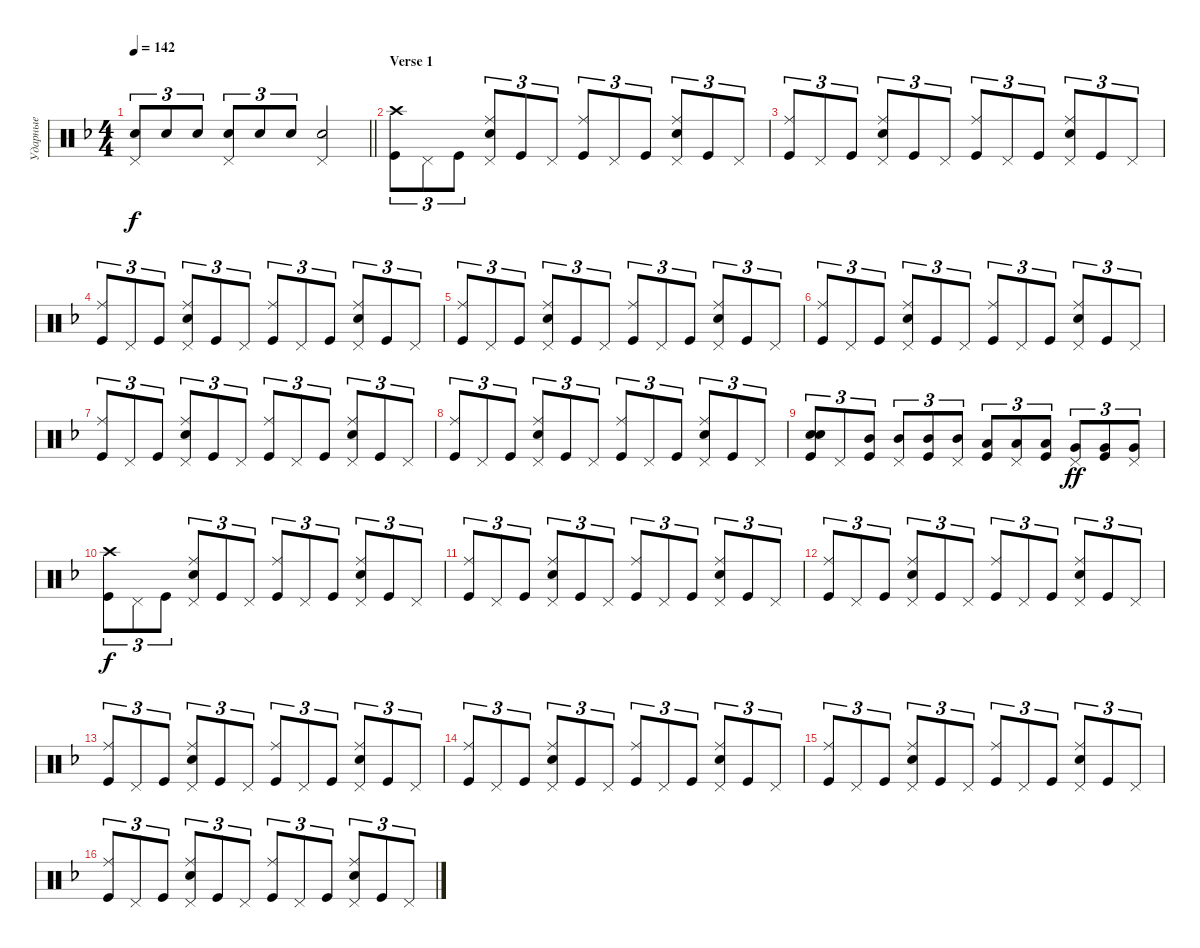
\track ("Ударные" "Ударные") {instrument percussion}
\staff {score}
\articulation defaults
\ts (4 4)
\tempo 142
\clef neutral
\barLineRight lightlight
\ks dminor
("Snare (hit) 2" "Pedal Hi-Hat (hit)").8{tu (3 2) dy f} "Snare (hit) 2".8{tu (3 2)} "Snare (hit) 2".8{tu (3 2)} ("Snare (hit) 2" "Pedal Hi-Hat (hit)").8{tu (3 2)} "Snare (hit) 2".8{tu (3 2)} "Snare (hit) 2".8{tu (3 2)} ("Snare (hit) 2" "Pedal Hi-Hat (hit)").2 |
\section ("" "Verse 1")
("Kick (hit)" "Crash high (hit)").8{tu (3 2)} "Pedal Hi-Hat (hit)".8{tu (3 2)} "Kick (hit)".8{tu (3 2)} ("Snare (hit) 2" "Ride (middle)" "Pedal Hi-Hat (hit)").8{tu (3 2)} "Kick (hit)".8{tu (3 2)} "Pedal Hi-Hat (hit)".8{tu (3 2)} ("Kick (hit)" "Ride (middle)").8{tu (3 2)} "Pedal Hi-Hat (hit)".8{tu (3 2)} "Kick (hit)".8{tu (3 2)} ("Snare (hit) 2" "Ride (middle)" "Pedal Hi-Hat (hit)").8{tu (3 2)} "Kick (hit)".8{tu (3 2)} "Pedal Hi-Hat (hit)".8{tu (3 2)} |
("Kick (hit)" "Ride (middle)").8{tu (3 2)} "Pedal Hi-Hat (hit)".8{tu (3 2)} "Kick (hit)".8{tu (3 2)} ("Snare (hit) 2" "Ride (middle)" "Pedal Hi-Hat (hit)").8{tu (3 2)} "Kick (hit)".8{tu (3 2)} "Pedal Hi-Hat (hit)".8{tu (3 2)} ("Kick (hit)" "Ride (middle)").8{tu (3 2)} "Pedal Hi-Hat (hit)".8{tu (3 2)} "Kick (hit)".8{tu (3 2)} ("Snare (hit) 2" "Ride (middle)" "Pedal Hi-Hat (hit)").8{tu (3 2)} "Kick (hit)".8{tu (3 2)} "Pedal Hi-Hat (hit)".8{tu (3 2)} |
("Kick (hit)" "Ride (middle)").8{tu (3 2)} "Pedal Hi-Hat (hit)".8{tu (3 2)} "Kick (hit)".8{tu (3 2)} ("Snare (hit) 2" "Ride (middle)" "Pedal Hi-Hat (hit)").8{tu (3 2)} "Kick (hit)".8{tu (3 2)} "Pedal Hi-Hat (hit)".8{tu (3 2)} ("Kick (hit)" "Ride (middle)").8{tu (3 2)} "Pedal Hi-Hat (hit)".8{tu (3 2)} "Kick (hit)".8{tu (3 2)} ("Snare (hit) 2" "Ride (middle)" "Pedal Hi-Hat (hit)").8{tu (3 2)} "Kick (hit)".8{tu (3 2)} "Pedal Hi-Hat (hit)".8{tu (3 2)} |
("Kick (hit)" "Ride (middle)").8{tu (3 2)} "Pedal Hi-Hat (hit)".8{tu (3 2)} "Kick (hit)".8{tu (3 2)} ("Snare (hit) 2" "Ride (middle)" "Pedal Hi-Hat (hit)").8{tu (3 2)} "Kick (hit)".8{tu (3 2)} "Pedal Hi-Hat (hit)".8{tu (3 2)} ("Kick (hit)" "Ride (middle)").8{tu (3 2)} "Pedal Hi-Hat (hit)".8{tu (3 2)} "Kick (hit)".8{tu (3 2)} ("Snare (hit) 2" "Ride (middle)" "Pedal Hi-Hat (hit)").8{tu (3 2)} "Kick (hit)".8{tu (3 2)} "Pedal Hi-Hat (hit)".8{tu (3 2)} |
("Kick (hit)" "Ride (middle)").8{tu (3 2)} "Pedal Hi-Hat (hit)".8{tu (3 2)} "Kick (hit)".8{tu (3 2)} ("Snare (hit) 2" "Ride (middle)" "Pedal Hi-Hat (hit)").8{tu (3 2)} "Kick (hit)".8{tu (3 2)} "Pedal Hi-Hat (hit)".8{tu (3 2)} ("Kick (hit)" "Ride (middle)").8{tu (3 2)} "Pedal Hi-Hat (hit)".8{tu (3 2)} "Kick (hit)".8{tu (3 2)} ("Snare (hit) 2" "Ride (middle)" "Pedal Hi-Hat (hit)").8{tu (3 2)} "Kick (hit)".8{tu (3 2)} "Pedal Hi-Hat (hit)".8{tu (3 2)} |
("Kick (hit)" "Ride (middle)").8{tu (3 2)} "Pedal Hi-Hat (hit)".8{tu (3 2)} "Kick (hit)".8{tu (3 2)} ("Snare (hit) 2" "Ride (middle)" "Pedal Hi-Hat (hit)").8{tu (3 2)} "Kick (hit)".8{tu (3 2)} "Pedal Hi-Hat (hit)".8{tu (3 2)} ("Kick (hit)" "Ride (middle)").8{tu (3 2)} "Pedal Hi-Hat (hit)".8{tu (3 2)} "Kick (hit)".8{tu (3 2)} ("Snare (hit) 2" "Ride (middle)" "Pedal Hi-Hat (hit)").8{tu (3 2)} "Kick (hit)".8{tu (3 2)} "Pedal Hi-Hat (hit)".8{tu (3 2)} |
("Kick (hit)" "Ride (middle)").8{tu (3 2)} "Pedal Hi-Hat (hit)".8{tu (3 2)} "Kick (hit)".8{tu (3 2)} ("Snare (hit) 2" "Ride (middle)" "Pedal Hi-Hat (hit)").8{tu (3 2)} "Kick (hit)".8{tu (3 2)} "Pedal Hi-Hat (hit)".8{tu (3 2)} ("Kick (hit)" "Ride (middle)").8{tu (3 2)} "Pedal Hi-Hat (hit)".8{tu (3 2)} "Kick (hit)".8{tu (3 2)} ("Snare (hit) 2" "Ride (middle)" "Pedal Hi-Hat (hit)").8{tu (3 2)} "Kick (hit)".8{tu (3 2)} "Pedal Hi-Hat (hit)".8{tu (3 2)} |
("Snare (hit) 2" "Snare (hit) 2" "Kick (hit)").8{tu (3 2) bd 240} "Pedal Hi-Hat (hit)".8{tu (3 2)} ("Mid Tom (hit)" "Kick (hit)").8{tu (3 2)} ("Pedal Hi-Hat (hit)" "Mid Tom (hit)").8{tu (3 2)} ("Mid Tom (hit)" "Kick (hit)").8{tu (3 2)} ("Mid Tom (hit)" "Pedal Hi-Hat (hit)").8{tu (3 2)} ("Low Tom (hit)" "Kick (hit)").8{tu (3 2)} ("Low Tom (hit)" "Pedal Hi-Hat (hit)").8{tu (3 2)} ("Low Tom (hit)" "Kick (hit)").8{tu (3 2)} ("Very Low Tom (hit)" "Pedal Hi-Hat (hit)").8{tu (3 2) dy ff} ("Very Low Tom (hit)" "Kick (hit)").8{tu (3 2)} ("Very Low Tom (hit)" "Pedal Hi-Hat (hit)").8{tu (3 2)} |
("Kick (hit)" "Crash high (hit)").8{tu (3 2) dy f} "Pedal Hi-Hat (hit)".8{tu (3 2)} "Kick (hit)".8{tu (3 2)} ("Snare (hit) 2" "Ride (middle)" "Pedal Hi-Hat (hit)").8{tu (3 2)} "Kick (hit)".8{tu (3 2)} "Pedal Hi-Hat (hit)".8{tu (3 2)} ("Kick (hit)" "Ride (middle)").8{tu (3 2)} "Pedal Hi-Hat (hit)".8{tu (3 2)} "Kick (hit)".8{tu (3 2)} ("Snare (hit) 2" "Ride (middle)" "Pedal Hi-Hat (hit)").8{tu (3 2)} "Kick (hit)".8{tu (3 2)} "Pedal Hi-Hat (hit)".8{tu (3 2)} |
("Kick (hit)" "Ride (middle)").8{tu (3 2)} "Pedal Hi-Hat (hit)".8{tu (3 2)} "Kick (hit)".8{tu (3 2)} ("Snare (hit) 2" "Ride (middle)" "Pedal Hi-Hat (hit)").8{tu (3 2)} "Kick (hit)".8{tu (3 2)} "Pedal Hi-Hat (hit)".8{tu (3 2)} ("Kick (hit)" "Ride (middle)").8{tu (3 2)} "Pedal Hi-Hat (hit)".8{tu (3 2)} "Kick (hit)".8{tu (3 2)} ("Snare (hit) 2" "Ride (middle)" "Pedal Hi-Hat (hit)").8{tu (3 2)} "Kick (hit)".8{tu (3 2)} "Pedal Hi-Hat (hit)".8{tu (3 2)} |
("Kick (hit)" "Ride (middle)").8{tu (3 2)} "Pedal Hi-Hat (hit)".8{tu (3 2)} "Kick (hit)".8{tu (3 2)} ("Snare (hit) 2" "Ride (middle)" "Pedal Hi-Hat (hit)").8{tu (3 2)} "Kick (hit)".8{tu (3 2)} "Pedal Hi-Hat (hit)".8{tu (3 2)} ("Kick (hit)" "Ride (middle)").8{tu (3 2)} "Pedal Hi-Hat (hit)".8{tu (3 2)} "Kick (hit)".8{tu (3 2)} ("Snare (hit) 2" "Ride (middle)" "Pedal Hi-Hat (hit)").8{tu (3 2)} "Kick (hit)".8{tu (3 2)} "Pedal Hi-Hat (hit)".8{tu (3 2)} |
("Kick (hit)" "Ride (middle)").8{tu (3 2)} "Pedal Hi-Hat (hit)".8{tu (3 2)} "Kick (hit)".8{tu (3 2)} ("Snare (hit) 2" "Ride (middle)" "Pedal Hi-Hat (hit)").8{tu (3 2)} "Kick (hit)".8{tu (3 2)} "Pedal Hi-Hat (hit)".8{tu (3 2)} ("Kick (hit)" "Ride (middle)").8{tu (3 2)} "Pedal Hi-Hat (hit)".8{tu (3 2)} "Kick (hit)".8{tu (3 2)} ("Snare (hit) 2" "Ride (middle)" "Pedal Hi-Hat (hit)").8{tu (3 2)} "Kick (hit)".8{tu (3 2)} "Pedal Hi-Hat (hit)".8{tu (3 2)} |
("Kick (hit)" "Ride (middle)").8{tu (3 2)} "Pedal Hi-Hat (hit)".8{tu (3 2)} "Kick (hit)".8{tu (3 2)} ("Snare (hit) 2" "Ride (middle)" "Pedal Hi-Hat (hit)").8{tu (3 2)} "Kick (hit)".8{tu (3 2)} "Pedal Hi-Hat (hit)".8{tu (3 2)} ("Kick (hit)" "Ride (middle)").8{tu (3 2)} "Pedal Hi-Hat (hit)".8{tu (3 2)} "Kick (hit)".8{tu (3 2)} ("Snare (hit) 2" "Ride (middle)" "Pedal Hi-Hat (hit)").8{tu (3 2)} "Kick (hit)".8{tu (3 2)} "Pedal Hi-Hat (hit)".8{tu (3 2)} |
("Kick (hit)" "Ride (middle)").8{tu (3 2)} "Pedal Hi-Hat (hit)".8{tu (3 2)} "Kick (hit)".8{tu (3 2)} ("Snare (hit) 2" "Ride (middle)" "Pedal Hi-Hat (hit)").8{tu (3 2)} "Kick (hit)".8{tu (3 2)} "Pedal Hi-Hat (hit)".8{tu (3 2)} ("Kick (hit)" "Ride (middle)").8{tu (3 2)} "Pedal Hi-Hat (hit)".8{tu (3 2)} "Kick (hit)".8{tu (3 2)} ("Snare (hit) 2" "Ride (middle)" "Pedal Hi-Hat (hit)").8{tu (3 2)} "Kick (hit)".8{tu (3 2)} "Pedal Hi-Hat (hit)".8{tu (3 2)} |
("Kick (hit)" "Ride (middle)").8{tu (3 2)} "Pedal Hi-Hat (hit)".8{tu (3 2)} "Kick (hit)".8{tu (3 2)} ("Snare (hit) 2" "Ride (middle)" "Pedal Hi-Hat (hit)").8{tu (3 2)} "Kick (hit)".8{tu (3 2)} "Pedal Hi-Hat (hit)".8{tu (3 2)} ("Kick (hit)" "Ride (middle)").8{tu (3 2)} "Pedal Hi-Hat (hit)".8{tu (3 2)} "Kick (hit)".8{tu (3 2)} ("Snare (hit) 2" "Ride (middle)" "Pedal Hi-Hat (hit)").8{tu (3 2)} "Kick (hit)".8{tu (3 2)} "Pedal Hi-Hat (hit)".8{tu (3 2)}
